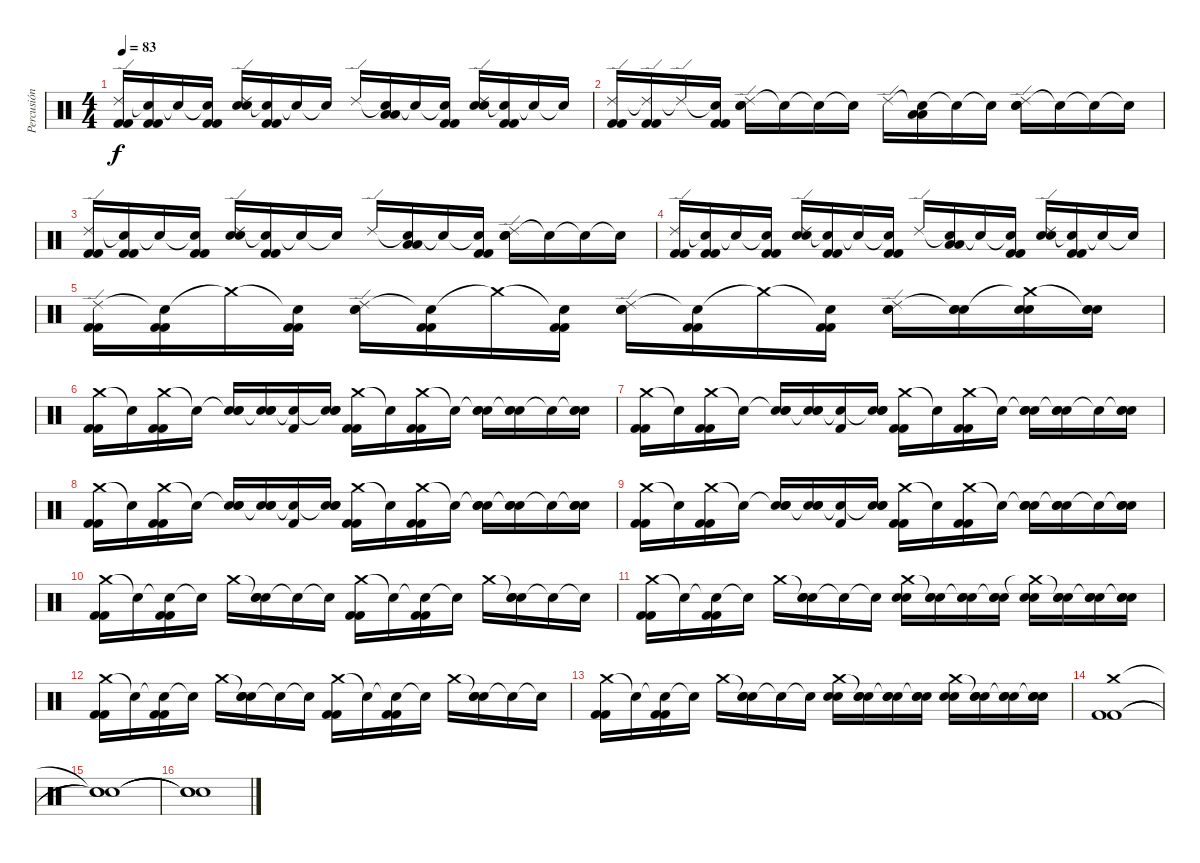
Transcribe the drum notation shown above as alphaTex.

\track ("Percusión" "Percusión") {instrument percussion}
\staff {score}
\articulation defaults
\ts (4 4)
\tempo 83
\clef neutral
\ks c
("Ride (edge) 2" "Kick (hit) 2" "Kick (hit) 2").16{dy f} ("Snare (hit)"{t} "Kick (hit) 2" "Kick (hit) 2").16 "Snare (hit)"{t}.16 ("Snare (hit)"{t} "Kick (hit) 2" "Kick (hit) 2").16 ("Ride (edge) 2" "Electric Snare (hit)" "Electric Snare (hit)").16 ("Snare (hit)"{t} "Kick (hit) 2" "Kick (hit) 2").16 "Snare (hit)"{t}.16 "Snare (hit)"{t}.16 "Ride (edge) 2".16 ("Snare (hit)"{t} "Low Tom (hit)" "Low Tom (hit)").16 "Snare (hit)"{t}.16 ("Snare (hit)"{t} "Kick (hit) 2" "Kick (hit) 2").16 ("Ride (edge) 2" "Electric Snare (hit)" "Electric Snare (hit)").16 ("Snare (hit)"{t} "Kick (hit) 2" "Kick (hit) 2").16 "Snare (hit)"{t}.16 "Snare (hit)"{t}.16 |
("Ride (edge) 2" "Kick (hit) 2" "Kick (hit) 2").16 ("Ride (edge) 2"{t} "Kick (hit) 2" "Kick (hit) 2").16 "Ride (edge) 2"{t}.16 ("Snare (hit)"{t} "Kick (hit) 2" "Kick (hit) 2").16 ("Ride (edge) 2" "Electric Snare (hit)" "Electric Snare (hit)").16 "Snare (hit)"{t}.16 "Snare (hit)"{t}.16 "Snare (hit)"{t}.16 "Ride (edge) 2".16 ("Snare (hit)"{t} "Low Tom (hit)" "Low Tom (hit)").16 "Snare (hit)"{t}.16 "Snare (hit)"{t}.16 ("Ride (edge) 2" "Electric Snare (hit)" "Electric Snare (hit)").16 "Snare (hit)"{t}.16 "Snare (hit)"{t}.16 "Snare (hit)"{t}.16 |
("Ride (edge) 2" "Kick (hit) 2" "Kick (hit) 2").16 ("Snare (hit)"{t} "Kick (hit) 2" "Kick (hit) 2").16 "Snare (hit)"{t}.16 ("Snare (hit)"{t} "Kick (hit) 2" "Kick (hit) 2").16 ("Ride (edge) 2" "Electric Snare (hit)" "Electric Snare (hit)").16 ("Snare (hit)"{t} "Kick (hit) 2" "Kick (hit) 2").16 "Snare (hit)"{t}.16 "Snare (hit)"{t}.16 "Ride (edge) 2".16 ("Snare (hit)"{t} "Low Tom (hit)" "Low Tom (hit)").16 "Snare (hit)"{t}.16 ("Snare (hit)"{t} "Kick (hit) 2" "Kick (hit) 2").16 ("Ride (edge) 2" "Electric Snare (hit)" "Electric Snare (hit)").16 "Snare (hit)"{t}.16 "Snare (hit)"{t}.16 "Snare (hit)"{t}.16 |
("Ride (edge) 2" "Kick (hit) 2" "Kick (hit) 2").16 ("Snare (hit)"{t} "Kick (hit) 2" "Kick (hit) 2").16 "Snare (hit)"{t}.16 ("Snare (hit)"{t} "Kick (hit) 2" "Kick (hit) 2").16 ("Ride (edge) 2" "Electric Snare (hit)" "Electric Snare (hit)").16 ("Snare (hit)"{t} "Kick (hit) 2" "Kick (hit) 2").16 "Snare (hit)"{t}.16 ("Snare (hit)"{t} "Kick (hit) 2" "Kick (hit) 2").16 "Ride (edge) 2".16 ("Snare (hit)"{t} "Low Tom (hit)" "Low Tom (hit)").16 "Snare (hit)"{t}.16 ("Snare (hit)"{t} "Kick (hit) 2" "Kick (hit) 2").16 ("Ride (edge) 2" "Electric Snare (hit)" "Electric Snare (hit)").16 ("Snare (hit)"{t} "Kick (hit) 2" "Kick (hit) 2").16 "Snare (hit)"{t}.16 "Snare (hit)"{t}.16 |
("Ride (edge) 2" "Kick (hit) 2" "Kick (hit) 2").16 ("Snare (hit)"{t} "Kick (hit) 2" "Kick (hit) 2").16 "Crash medium (hit)"{t}.16 ("Snare (hit)"{t} "Kick (hit) 2" "Kick (hit) 2").16 ("Ride (edge) 2" "Electric Snare (hit)" "Electric Snare (hit)").16 ("Snare (hit)"{t} "Kick (hit) 2" "Kick (hit) 2").16 "Crash medium (hit)"{t}.16 ("Snare (hit)"{t} "Kick (hit) 2" "Kick (hit) 2").16 ("Ride (edge) 2" "Electric Snare (hit)" "Electric Snare (hit)").16 ("Snare (hit)"{t} "Kick (hit) 2" "Kick (hit) 2").16 "Crash medium (hit)"{t}.16 ("Snare (hit)"{t} "Kick (hit) 2" "Kick (hit) 2").16 ("Ride (edge) 2" "Electric Snare (hit)" "Electric Snare (hit)").16 ("Snare (hit)"{t} "Electric Snare (hit)" "Electric Snare (hit)").16 ("Crash medium (hit)"{t} "Electric Snare (hit)" "Electric Snare (hit)").16 ("Snare (hit)"{t} "Electric Snare (hit)" "Electric Snare (hit)").16 |
("Crash medium (hit)" "Kick (hit) 2" "Kick (hit) 2").16 "Snare (hit)"{t}.16 ("Crash medium (hit)" "Kick (hit) 2" "Kick (hit) 2").16 "Snare (hit)"{t}.16 ("Snare (hit)"{t} "Electric Snare (hit)" "Electric Snare (hit)").16 ("Snare (hit)"{t} "Electric Snare (hit)" "Electric Snare (hit)").16 ("Snare (hit)"{t} "Kick (hit) 2").16 ("Snare (hit)"{t} "Electric Snare (hit)" "Electric Snare (hit)").16 ("Crash medium (hit)" "Kick (hit) 2" "Kick (hit) 2").16 "Snare (hit)"{t}.16 ("Crash medium (hit)" "Kick (hit) 2" "Kick (hit) 2").16 "Snare (hit)"{t}.16 ("Snare (hit)"{t} "Electric Snare (hit)" "Electric Snare (hit)").16 ("Snare (hit)"{t} "Electric Snare (hit)" "Electric Snare (hit)").16 "Snare (hit)"{t}.16 ("Snare (hit)"{t} "Electric Snare (hit)" "Electric Snare (hit)").16 |
("Crash medium (hit)" "Kick (hit) 2" "Kick (hit) 2").16 "Snare (hit)"{t}.16 ("Crash medium (hit)" "Kick (hit) 2" "Kick (hit) 2").16 "Snare (hit)"{t}.16 ("Snare (hit)"{t} "Electric Snare (hit)" "Electric Snare (hit)").16 ("Snare (hit)"{t} "Electric Snare (hit)" "Electric Snare (hit)").16 ("Snare (hit)"{t} "Kick (hit) 2").16 ("Snare (hit)"{t} "Electric Snare (hit)" "Electric Snare (hit)").16 ("Crash medium (hit)" "Kick (hit) 2" "Kick (hit) 2").16 "Snare (hit)"{t}.16 ("Crash medium (hit)" "Kick (hit) 2" "Kick (hit) 2").16 "Snare (hit)"{t}.16 ("Snare (hit)"{t} "Electric Snare (hit)" "Electric Snare (hit)").16 ("Snare (hit)"{t} "Electric Snare (hit)" "Electric Snare (hit)").16 "Snare (hit)"{t}.16 ("Snare (hit)"{t} "Electric Snare (hit)" "Electric Snare (hit)").16 |
("Crash medium (hit)" "Kick (hit) 2" "Kick (hit) 2").16 "Snare (hit)"{t}.16 ("Crash medium (hit)" "Kick (hit) 2" "Kick (hit) 2").16 "Snare (hit)"{t}.16 ("Snare (hit)"{t} "Electric Snare (hit)" "Electric Snare (hit)").16 ("Snare (hit)"{t} "Electric Snare (hit)" "Electric Snare (hit)").16 ("Snare (hit)"{t} "Kick (hit) 2").16 ("Snare (hit)"{t} "Electric Snare (hit)" "Electric Snare (hit)").16 ("Crash medium (hit)" "Kick (hit) 2" "Kick (hit) 2").16 "Snare (hit)"{t}.16 ("Crash medium (hit)" "Kick (hit) 2" "Kick (hit) 2").16 "Snare (hit)"{t}.16 ("Snare (hit)"{t} "Electric Snare (hit)" "Electric Snare (hit)").16 ("Snare (hit)"{t} "Electric Snare (hit)" "Electric Snare (hit)").16 "Snare (hit)"{t}.16 ("Snare (hit)"{t} "Electric Snare (hit)" "Electric Snare (hit)").16 |
("Crash medium (hit)" "Kick (hit) 2" "Kick (hit) 2").16 "Snare (hit)"{t}.16 ("Crash medium (hit)" "Kick (hit) 2" "Kick (hit) 2").16 "Snare (hit)"{t}.16 ("Snare (hit)"{t} "Electric Snare (hit)" "Electric Snare (hit)").16 ("Snare (hit)"{t} "Electric Snare (hit)" "Electric Snare (hit)").16 ("Snare (hit)"{t} "Kick (hit) 2").16 ("Snare (hit)"{t} "Electric Snare (hit)" "Electric Snare (hit)").16 ("Crash medium (hit)" "Kick (hit) 2" "Kick (hit) 2").16 "Snare (hit)"{t}.16 ("Crash medium (hit)" "Kick (hit) 2" "Kick (hit) 2").16 "Snare (hit)"{t}.16 ("Snare (hit)"{t} "Electric Snare (hit)" "Electric Snare (hit)").16 ("Snare (hit)"{t} "Electric Snare (hit)" "Electric Snare (hit)").16 "Snare (hit)"{t}.16 ("Snare (hit)"{t} "Electric Snare (hit)" "Electric Snare (hit)").16 |
("Crash medium (hit)" "Kick (hit) 2" "Kick (hit) 2").16 "Snare (hit)"{t}.16 ("Snare (hit)"{t} "Kick (hit) 2" "Kick (hit) 2").16 "Snare (hit)"{t}.16 "Crash medium (hit)".16 ("Snare (hit)"{t} "Electric Snare (hit)" "Electric Snare (hit)").16 "Snare (hit)"{t}.16 "Snare (hit)"{t}.16 ("Crash medium (hit)" "Kick (hit) 2" "Kick (hit) 2").16 "Snare (hit)"{t}.16 ("Snare (hit)"{t} "Kick (hit) 2" "Kick (hit) 2").16 "Snare (hit)"{t}.16 "Crash medium (hit)".16 ("Snare (hit)"{t} "Electric Snare (hit)" "Electric Snare (hit)").16 "Snare (hit)"{t}.16 "Snare (hit)"{t}.16 |
("Crash medium (hit)" "Kick (hit) 2" "Kick (hit) 2").16 "Snare (hit)"{t}.16 ("Snare (hit)"{t} "Kick (hit) 2" "Kick (hit) 2").16 "Snare (hit)"{t}.16 "Crash medium (hit)".16 ("Snare (hit)"{t} "Electric Snare (hit)" "Electric Snare (hit)").16 "Snare (hit)"{t}.16 "Snare (hit)"{t}.16 ("Crash medium (hit)" "Electric Snare (hit)" "Electric Snare (hit)").16 ("Snare (hit)"{t} "Electric Snare (hit)" "Electric Snare (hit)").16 ("Snare (hit)"{t} "Electric Snare (hit)" "Electric Snare (hit)").16 ("Snare (hit)"{t} "Electric Snare (hit)" "Electric Snare (hit)").16 ("Crash medium (hit)"{t} "Electric Snare (hit)" "Electric Snare (hit)").16 ("Snare (hit)"{t} "Electric Snare (hit)" "Electric Snare (hit)").16 ("Snare (hit)"{t} "Electric Snare (hit)" "Electric Snare (hit)").16 ("Snare (hit)"{t} "Electric Snare (hit)" "Electric Snare (hit)").16 |
("Crash medium (hit)" "Kick (hit) 2" "Kick (hit) 2").16 "Snare (hit)"{t}.16 ("Snare (hit)"{t} "Kick (hit) 2" "Kick (hit) 2").16 "Snare (hit)"{t}.16 "Crash medium (hit)".16 ("Snare (hit)"{t} "Electric Snare (hit)" "Electric Snare (hit)").16 "Snare (hit)"{t}.16 "Snare (hit)"{t}.16 ("Crash medium (hit)" "Kick (hit) 2" "Kick (hit) 2").16 "Snare (hit)"{t}.16 ("Snare (hit)"{t} "Kick (hit) 2" "Kick (hit) 2").16 "Snare (hit)"{t}.16 "Crash medium (hit)".16 ("Snare (hit)"{t} "Electric Snare (hit)" "Electric Snare (hit)").16 "Snare (hit)"{t}.16 "Snare (hit)"{t}.16 |
("Crash medium (hit)" "Kick (hit) 2" "Kick (hit) 2").16 "Snare (hit)"{t}.16 ("Snare (hit)"{t} "Kick (hit) 2" "Kick (hit) 2").16 "Snare (hit)"{t}.16 "Crash medium (hit)".16 ("Snare (hit)"{t} "Electric Snare (hit)" "Electric Snare (hit)").16 "Snare (hit)"{t}.16 "Snare (hit)"{t}.16 ("Crash medium (hit)" "Electric Snare (hit)" "Electric Snare (hit)").16 ("Snare (hit)"{t} "Electric Snare (hit)" "Electric Snare (hit)").16 ("Snare (hit)"{t} "Electric Snare (hit)" "Electric Snare (hit)").16 ("Snare (hit)"{t} "Electric Snare (hit)" "Electric Snare (hit)").16 ("Crash medium (hit)" "Electric Snare (hit)" "Electric Snare (hit)").16 ("Snare (hit)"{t} "Electric Snare (hit)" "Electric Snare (hit)").16 ("Snare (hit)"{t} "Electric Snare (hit)" "Electric Snare (hit)").16 ("Snare (hit)"{t} "Electric Snare (hit)" "Electric Snare (hit)").16 |
("Crash medium (hit)" "Kick (hit) 2" "Kick (hit) 2").1 |
("Snare (hit)"{t} "Snare (hit)"{t} "Snare (hit)"{t}).1 |
("Snare (hit)"{t} "Snare (hit)"{t} "Snare (hit)"{t}).1
